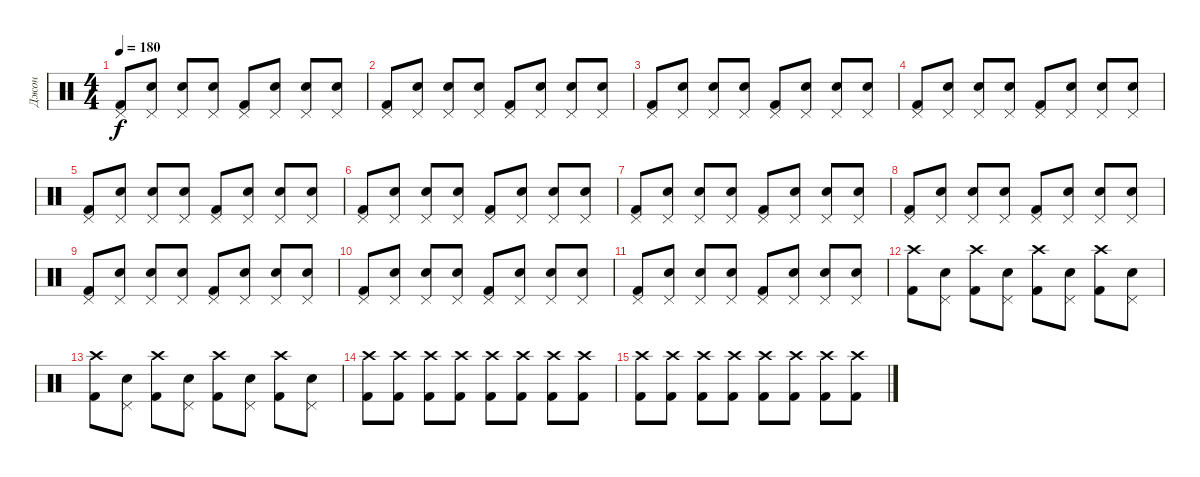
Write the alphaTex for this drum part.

\track ("Джон" "Джон") {instrument percussion}
\staff {score}
\articulation defaults
\ts (4 4)
\tempo 180
\clef neutral
\ks c
("Pedal Hi-Hat (hit)" "Kick (hit) 2").8{dy f} ("Pedal Hi-Hat (hit)" "Snare (hit)").8 ("Pedal Hi-Hat (hit)" "Electric Snare (hit)").8 ("Pedal Hi-Hat (hit)" "Snare (hit)").8 ("Pedal Hi-Hat (hit)" "Kick (hit) 2").8 ("Pedal Hi-Hat (hit)" "Snare (hit)").8 ("Pedal Hi-Hat (hit)" "Electric Snare (hit)").8 ("Pedal Hi-Hat (hit)" "Snare (hit)").8 |
("Pedal Hi-Hat (hit)" "Kick (hit) 2").8 ("Pedal Hi-Hat (hit)" "Snare (hit)").8 ("Pedal Hi-Hat (hit)" "Electric Snare (hit)").8 ("Pedal Hi-Hat (hit)" "Snare (hit)").8 ("Pedal Hi-Hat (hit)" "Kick (hit) 2").8 ("Pedal Hi-Hat (hit)" "Snare (hit)").8 ("Pedal Hi-Hat (hit)" "Electric Snare (hit)").8 ("Pedal Hi-Hat (hit)" "Snare (hit)").8 |
("Pedal Hi-Hat (hit)" "Kick (hit) 2").8 ("Pedal Hi-Hat (hit)" "Snare (hit)").8 ("Pedal Hi-Hat (hit)" "Electric Snare (hit)").8 ("Pedal Hi-Hat (hit)" "Snare (hit)").8 ("Pedal Hi-Hat (hit)" "Kick (hit) 2").8 ("Pedal Hi-Hat (hit)" "Snare (hit)").8 ("Pedal Hi-Hat (hit)" "Electric Snare (hit)").8 ("Pedal Hi-Hat (hit)" "Snare (hit)").8 |
("Pedal Hi-Hat (hit)" "Kick (hit) 2").8 ("Pedal Hi-Hat (hit)" "Snare (hit)").8 ("Pedal Hi-Hat (hit)" "Electric Snare (hit)").8 ("Pedal Hi-Hat (hit)" "Snare (hit)").8 ("Pedal Hi-Hat (hit)" "Kick (hit) 2").8 ("Pedal Hi-Hat (hit)" "Snare (hit)").8 ("Pedal Hi-Hat (hit)" "Electric Snare (hit)").8 ("Pedal Hi-Hat (hit)" "Snare (hit)").8 |
("Pedal Hi-Hat (hit)" "Kick (hit) 2").8 ("Pedal Hi-Hat (hit)" "Snare (hit)").8 ("Pedal Hi-Hat (hit)" "Electric Snare (hit)").8 ("Pedal Hi-Hat (hit)" "Snare (hit)").8 ("Pedal Hi-Hat (hit)" "Kick (hit) 2").8 ("Pedal Hi-Hat (hit)" "Snare (hit)").8 ("Pedal Hi-Hat (hit)" "Electric Snare (hit)").8 ("Pedal Hi-Hat (hit)" "Snare (hit)").8 |
("Pedal Hi-Hat (hit)" "Kick (hit) 2").8 ("Pedal Hi-Hat (hit)" "Snare (hit)").8 ("Pedal Hi-Hat (hit)" "Electric Snare (hit)").8 ("Pedal Hi-Hat (hit)" "Snare (hit)").8 ("Pedal Hi-Hat (hit)" "Kick (hit) 2").8 ("Pedal Hi-Hat (hit)" "Snare (hit)").8 ("Pedal Hi-Hat (hit)" "Electric Snare (hit)").8 ("Pedal Hi-Hat (hit)" "Snare (hit)").8 |
("Pedal Hi-Hat (hit)" "Kick (hit) 2").8 ("Pedal Hi-Hat (hit)" "Snare (hit)").8 ("Pedal Hi-Hat (hit)" "Electric Snare (hit)").8 ("Pedal Hi-Hat (hit)" "Snare (hit)").8 ("Pedal Hi-Hat (hit)" "Kick (hit) 2").8 ("Pedal Hi-Hat (hit)" "Snare (hit)").8 ("Pedal Hi-Hat (hit)" "Electric Snare (hit)").8 ("Pedal Hi-Hat (hit)" "Snare (hit)").8 |
("Pedal Hi-Hat (hit)" "Kick (hit) 2").8 ("Pedal Hi-Hat (hit)" "Snare (hit)").8 ("Pedal Hi-Hat (hit)" "Electric Snare (hit)").8 ("Pedal Hi-Hat (hit)" "Snare (hit)").8 ("Pedal Hi-Hat (hit)" "Kick (hit) 2").8 ("Pedal Hi-Hat (hit)" "Snare (hit)").8 ("Pedal Hi-Hat (hit)" "Electric Snare (hit)").8 ("Pedal Hi-Hat (hit)" "Snare (hit)").8 |
("Pedal Hi-Hat (hit)" "Kick (hit) 2").8 ("Pedal Hi-Hat (hit)" "Snare (hit)").8 ("Pedal Hi-Hat (hit)" "Electric Snare (hit)").8 ("Pedal Hi-Hat (hit)" "Snare (hit)").8 ("Pedal Hi-Hat (hit)" "Kick (hit) 2").8 ("Pedal Hi-Hat (hit)" "Snare (hit)").8 ("Pedal Hi-Hat (hit)" "Electric Snare (hit)").8 ("Pedal Hi-Hat (hit)" "Snare (hit)").8 |
("Pedal Hi-Hat (hit)" "Kick (hit) 2").8 ("Pedal Hi-Hat (hit)" "Snare (hit)").8 ("Pedal Hi-Hat (hit)" "Electric Snare (hit)").8 ("Pedal Hi-Hat (hit)" "Snare (hit)").8 ("Pedal Hi-Hat (hit)" "Kick (hit) 2").8 ("Pedal Hi-Hat (hit)" "Snare (hit)").8 ("Pedal Hi-Hat (hit)" "Electric Snare (hit)").8 ("Pedal Hi-Hat (hit)" "Snare (hit)").8 |
("Pedal Hi-Hat (hit)" "Kick (hit) 2").8 ("Pedal Hi-Hat (hit)" "Snare (hit)").8 ("Pedal Hi-Hat (hit)" "Electric Snare (hit)").8 ("Pedal Hi-Hat (hit)" "Snare (hit)").8 ("Pedal Hi-Hat (hit)" "Kick (hit) 2").8 ("Pedal Hi-Hat (hit)" "Snare (hit)").8 ("Pedal Hi-Hat (hit)" "Electric Snare (hit)").8 ("Pedal Hi-Hat (hit)" "Snare (hit)").8 |
("Crash high (hit)" "Kick (hit) 2").8 ("Pedal Hi-Hat (hit)" "Snare (hit)").8 ("Crash high (hit)" "Kick (hit) 2").8 ("Pedal Hi-Hat (hit)" "Snare (hit)").8 ("Crash high (hit)" "Kick (hit) 2").8 ("Pedal Hi-Hat (hit)" "Snare (hit)").8 ("Crash high (hit)" "Kick (hit) 2").8 ("Pedal Hi-Hat (hit)" "Snare (hit)").8 |
("Crash high (hit)" "Kick (hit) 2").8 ("Pedal Hi-Hat (hit)" "Snare (hit)").8 ("Crash high (hit)" "Kick (hit) 2").8 ("Pedal Hi-Hat (hit)" "Snare (hit)").8 ("Crash high (hit)" "Kick (hit) 2").8 ("Pedal Hi-Hat (hit)" "Snare (hit)").8 ("Crash high (hit)" "Kick (hit) 2").8 ("Pedal Hi-Hat (hit)" "Snare (hit)").8 |
("Crash high (hit)" "Kick (hit) 2").8 ("Crash high (hit)" "Kick (hit) 2").8 ("Crash high (hit)" "Kick (hit) 2").8 ("Crash high (hit)" "Kick (hit) 2").8 ("Crash high (hit)" "Kick (hit) 2").8 ("Crash high (hit)" "Kick (hit) 2").8 ("Crash high (hit)" "Kick (hit) 2").8 ("Crash high (hit)" "Kick (hit) 2").8 |
("Crash high (hit)" "Kick (hit) 2").8 ("Crash high (hit)" "Kick (hit) 2").8 ("Crash high (hit)" "Kick (hit) 2").8 ("Crash high (hit)" "Kick (hit) 2").8 ("Crash high (hit)" "Kick (hit) 2").8 ("Crash high (hit)" "Kick (hit) 2").8 ("Crash high (hit)" "Kick (hit) 2").8 ("Crash high (hit)" "Kick (hit) 2").8
